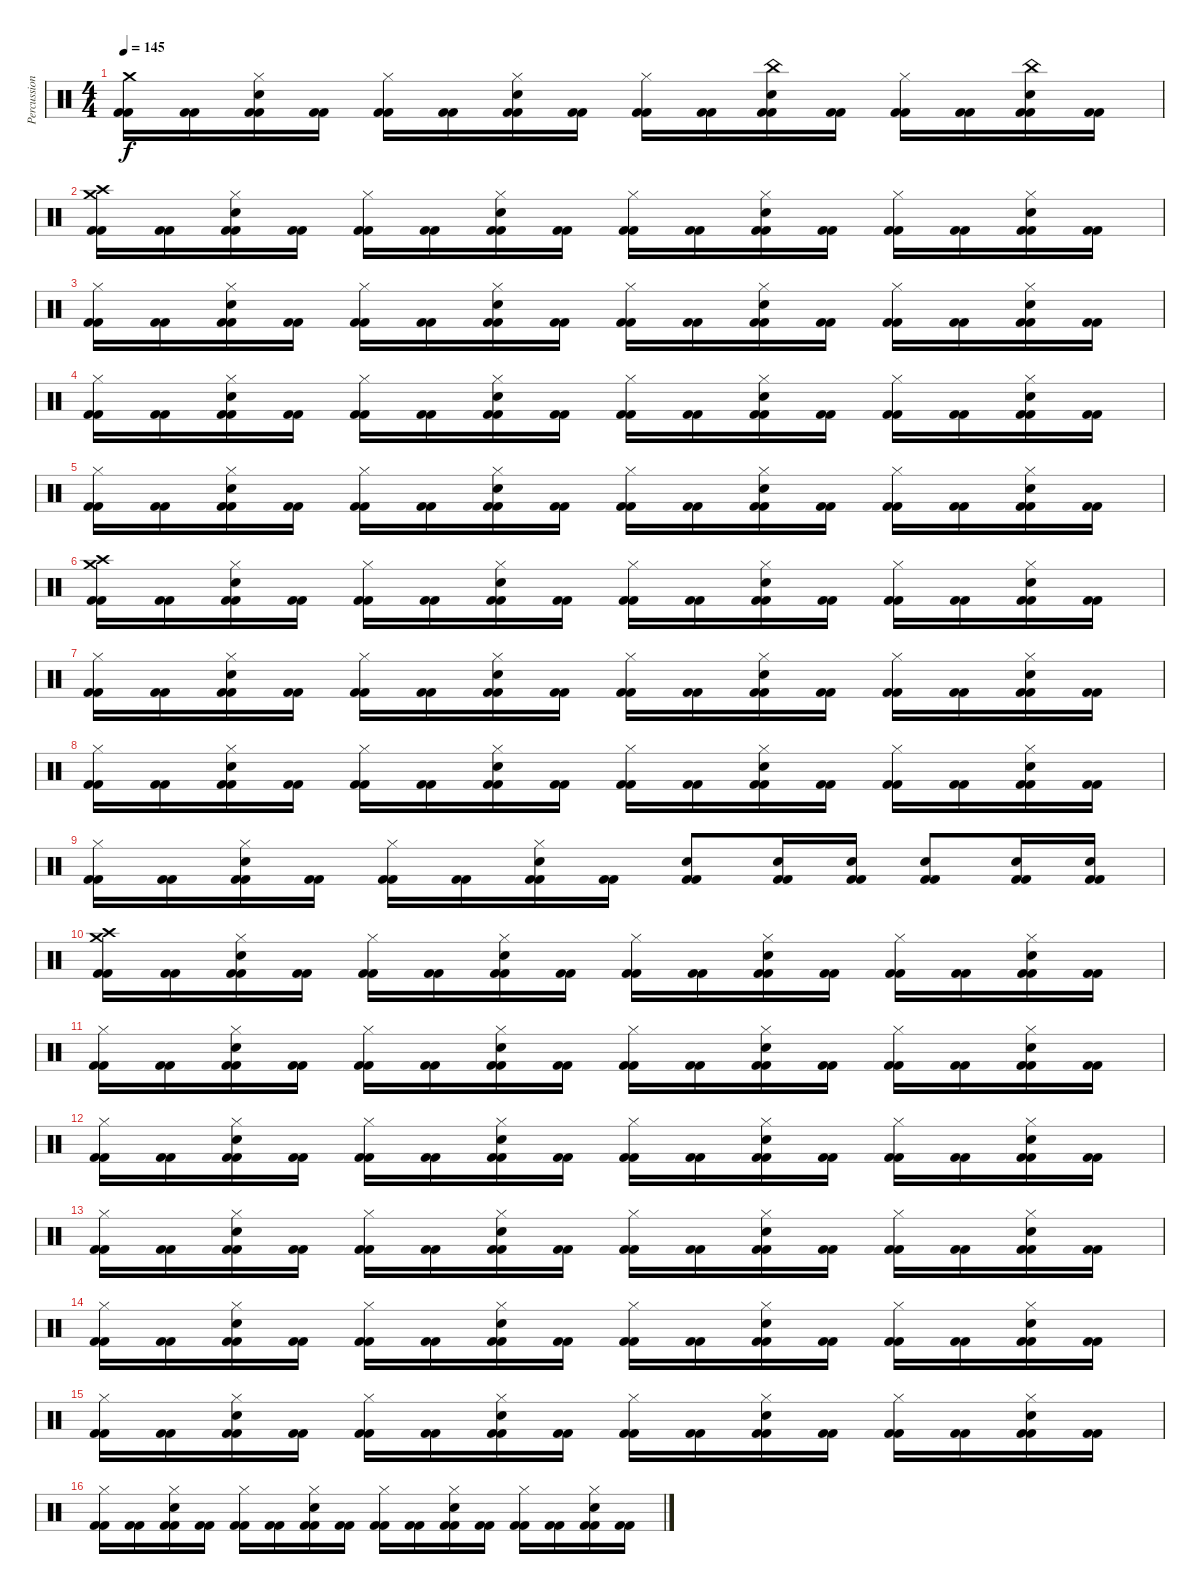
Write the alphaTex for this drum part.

\track ("Percussion" "Percussion") {instrument percussion}
\staff {score}
\articulation defaults
\ts (4 4)
\tempo 145
\clef neutral
\ks c
("Crash medium (hit)" "Kick (hit) 2" "Kick (hit) 2").16{dy f} ("Kick (hit) 2" "Kick (hit) 2").16 ("Hi-Hat (closed)" "Snare (hit) 2" "Kick (hit) 2" "Kick (hit) 2").16 ("Kick (hit) 2" "Kick (hit) 2").16 ("Hi-Hat (closed)" "Kick (hit) 2" "Kick (hit) 2").16 ("Kick (hit) 2" "Kick (hit) 2").16 ("Hi-Hat (closed)" "Snare (hit) 2" "Kick (hit) 2" "Kick (hit) 2").16 ("Kick (hit) 2" "Kick (hit) 2").16 ("Hi-Hat (closed)" "Kick (hit) 2" "Kick (hit) 2").16 ("Kick (hit) 2" "Kick (hit) 2").16 ("China (hit)" "Snare (hit) 2" "Kick (hit) 2" "Kick (hit) 2").16 ("Kick (hit) 2" "Kick (hit) 2").16 ("Hi-Hat (closed)" "Kick (hit) 2" "Kick (hit) 2").16 ("Kick (hit) 2" "Kick (hit) 2").16 ("China (hit)" "Snare (hit) 2" "Kick (hit) 2" "Kick (hit) 2").16 ("Kick (hit) 2" "Kick (hit) 2").16 |
("Crash high (hit)" "Crash medium (hit)" "Kick (hit) 2" "Kick (hit) 2").16 ("Kick (hit) 2" "Kick (hit) 2").16 ("Hi-Hat (closed)" "Snare (hit) 2" "Kick (hit) 2" "Kick (hit) 2").16 ("Kick (hit) 2" "Kick (hit) 2").16 ("Hi-Hat (closed)" "Kick (hit) 2" "Kick (hit) 2").16 ("Kick (hit) 2" "Kick (hit) 2").16 ("Hi-Hat (closed)" "Snare (hit) 2" "Kick (hit) 2" "Kick (hit) 2").16 ("Kick (hit) 2" "Kick (hit) 2").16 ("Hi-Hat (closed)" "Kick (hit) 2" "Kick (hit) 2").16 ("Kick (hit) 2" "Kick (hit) 2").16 ("Hi-Hat (closed)" "Snare (hit) 2" "Kick (hit) 2" "Kick (hit) 2").16 ("Kick (hit) 2" "Kick (hit) 2").16 ("Hi-Hat (closed)" "Kick (hit) 2" "Kick (hit) 2").16 ("Kick (hit) 2" "Kick (hit) 2").16 ("Hi-Hat (closed)" "Snare (hit) 2" "Kick (hit) 2" "Kick (hit) 2").16 ("Kick (hit) 2" "Kick (hit) 2").16 |
("Hi-Hat (closed)" "Kick (hit) 2" "Kick (hit) 2").16 ("Kick (hit) 2" "Kick (hit) 2").16 ("Hi-Hat (closed)" "Snare (hit) 2" "Kick (hit) 2" "Kick (hit) 2").16 ("Kick (hit) 2" "Kick (hit) 2").16 ("Hi-Hat (closed)" "Kick (hit) 2" "Kick (hit) 2").16 ("Kick (hit) 2" "Kick (hit) 2").16 ("Hi-Hat (closed)" "Snare (hit) 2" "Kick (hit) 2" "Kick (hit) 2").16 ("Kick (hit) 2" "Kick (hit) 2").16 ("Hi-Hat (closed)" "Kick (hit) 2" "Kick (hit) 2").16 ("Kick (hit) 2" "Kick (hit) 2").16 ("Hi-Hat (closed)" "Snare (hit) 2" "Kick (hit) 2" "Kick (hit) 2").16 ("Kick (hit) 2" "Kick (hit) 2").16 ("Hi-Hat (closed)" "Kick (hit) 2" "Kick (hit) 2").16 ("Kick (hit) 2" "Kick (hit) 2").16 ("Hi-Hat (closed)" "Snare (hit) 2" "Kick (hit) 2" "Kick (hit) 2").16 ("Kick (hit) 2" "Kick (hit) 2").16 |
("Hi-Hat (closed)" "Kick (hit) 2" "Kick (hit) 2").16 ("Kick (hit) 2" "Kick (hit) 2").16 ("Hi-Hat (closed)" "Snare (hit) 2" "Kick (hit) 2" "Kick (hit) 2").16 ("Kick (hit) 2" "Kick (hit) 2").16 ("Hi-Hat (closed)" "Kick (hit) 2" "Kick (hit) 2").16 ("Kick (hit) 2" "Kick (hit) 2").16 ("Hi-Hat (closed)" "Snare (hit) 2" "Kick (hit) 2" "Kick (hit) 2").16 ("Kick (hit) 2" "Kick (hit) 2").16 ("Hi-Hat (closed)" "Kick (hit) 2" "Kick (hit) 2").16 ("Kick (hit) 2" "Kick (hit) 2").16 ("Hi-Hat (closed)" "Snare (hit) 2" "Kick (hit) 2" "Kick (hit) 2").16 ("Kick (hit) 2" "Kick (hit) 2").16 ("Hi-Hat (closed)" "Kick (hit) 2" "Kick (hit) 2").16 ("Kick (hit) 2" "Kick (hit) 2").16 ("Hi-Hat (closed)" "Snare (hit) 2" "Kick (hit) 2" "Kick (hit) 2").16 ("Kick (hit) 2" "Kick (hit) 2").16 |
("Hi-Hat (closed)" "Kick (hit) 2" "Kick (hit) 2").16 ("Kick (hit) 2" "Kick (hit) 2").16 ("Hi-Hat (closed)" "Snare (hit) 2" "Kick (hit) 2" "Kick (hit) 2").16 ("Kick (hit) 2" "Kick (hit) 2").16 ("Hi-Hat (closed)" "Kick (hit) 2" "Kick (hit) 2").16 ("Kick (hit) 2" "Kick (hit) 2").16 ("Hi-Hat (closed)" "Snare (hit) 2" "Kick (hit) 2" "Kick (hit) 2").16 ("Kick (hit) 2" "Kick (hit) 2").16 ("Hi-Hat (closed)" "Kick (hit) 2" "Kick (hit) 2").16 ("Kick (hit) 2" "Kick (hit) 2").16 ("Hi-Hat (closed)" "Snare (hit) 2" "Kick (hit) 2" "Kick (hit) 2").16 ("Kick (hit) 2" "Kick (hit) 2").16 ("Hi-Hat (closed)" "Kick (hit) 2" "Kick (hit) 2").16 ("Kick (hit) 2" "Kick (hit) 2").16 ("Hi-Hat (closed)" "Snare (hit) 2" "Kick (hit) 2" "Kick (hit) 2").16 ("Kick (hit) 2" "Kick (hit) 2").16 |
("Crash high (hit)" "Crash medium (hit)" "Kick (hit) 2" "Kick (hit) 2").16 ("Kick (hit) 2" "Kick (hit) 2").16 ("Hi-Hat (closed)" "Snare (hit) 2" "Kick (hit) 2" "Kick (hit) 2").16 ("Kick (hit) 2" "Kick (hit) 2").16 ("Hi-Hat (closed)" "Kick (hit) 2" "Kick (hit) 2").16 ("Kick (hit) 2" "Kick (hit) 2").16 ("Hi-Hat (closed)" "Snare (hit) 2" "Kick (hit) 2" "Kick (hit) 2").16 ("Kick (hit) 2" "Kick (hit) 2").16 ("Hi-Hat (closed)" "Kick (hit) 2" "Kick (hit) 2").16 ("Kick (hit) 2" "Kick (hit) 2").16 ("Hi-Hat (closed)" "Snare (hit) 2" "Kick (hit) 2" "Kick (hit) 2").16 ("Kick (hit) 2" "Kick (hit) 2").16 ("Hi-Hat (closed)" "Kick (hit) 2" "Kick (hit) 2").16 ("Kick (hit) 2" "Kick (hit) 2").16 ("Hi-Hat (closed)" "Snare (hit) 2" "Kick (hit) 2" "Kick (hit) 2").16 ("Kick (hit) 2" "Kick (hit) 2").16 |
("Hi-Hat (closed)" "Kick (hit) 2" "Kick (hit) 2").16 ("Kick (hit) 2" "Kick (hit) 2").16 ("Hi-Hat (closed)" "Snare (hit) 2" "Kick (hit) 2" "Kick (hit) 2").16 ("Kick (hit) 2" "Kick (hit) 2").16 ("Hi-Hat (closed)" "Kick (hit) 2" "Kick (hit) 2").16 ("Kick (hit) 2" "Kick (hit) 2").16 ("Hi-Hat (closed)" "Snare (hit) 2" "Kick (hit) 2" "Kick (hit) 2").16 ("Kick (hit) 2" "Kick (hit) 2").16 ("Hi-Hat (closed)" "Kick (hit) 2" "Kick (hit) 2").16 ("Kick (hit) 2" "Kick (hit) 2").16 ("Hi-Hat (closed)" "Snare (hit) 2" "Kick (hit) 2" "Kick (hit) 2").16 ("Kick (hit) 2" "Kick (hit) 2").16 ("Hi-Hat (closed)" "Kick (hit) 2" "Kick (hit) 2").16 ("Kick (hit) 2" "Kick (hit) 2").16 ("Hi-Hat (closed)" "Snare (hit) 2" "Kick (hit) 2" "Kick (hit) 2").16 ("Kick (hit) 2" "Kick (hit) 2").16 |
("Hi-Hat (closed)" "Kick (hit) 2" "Kick (hit) 2").16 ("Kick (hit) 2" "Kick (hit) 2").16 ("Hi-Hat (closed)" "Snare (hit) 2" "Kick (hit) 2" "Kick (hit) 2").16 ("Kick (hit) 2" "Kick (hit) 2").16 ("Hi-Hat (closed)" "Kick (hit) 2" "Kick (hit) 2").16 ("Kick (hit) 2" "Kick (hit) 2").16 ("Hi-Hat (closed)" "Snare (hit) 2" "Kick (hit) 2" "Kick (hit) 2").16 ("Kick (hit) 2" "Kick (hit) 2").16 ("Hi-Hat (closed)" "Kick (hit) 2" "Kick (hit) 2").16 ("Kick (hit) 2" "Kick (hit) 2").16 ("Hi-Hat (closed)" "Snare (hit) 2" "Kick (hit) 2" "Kick (hit) 2").16 ("Kick (hit) 2" "Kick (hit) 2").16 ("Hi-Hat (closed)" "Kick (hit) 2" "Kick (hit) 2").16 ("Kick (hit) 2" "Kick (hit) 2").16 ("Hi-Hat (closed)" "Snare (hit) 2" "Kick (hit) 2" "Kick (hit) 2").16 ("Kick (hit) 2" "Kick (hit) 2").16 |
("Hi-Hat (closed)" "Kick (hit) 2" "Kick (hit) 2").16 ("Kick (hit) 2" "Kick (hit) 2").16 ("Hi-Hat (closed)" "Snare (hit) 2" "Kick (hit) 2" "Kick (hit) 2").16 ("Kick (hit) 2" "Kick (hit) 2").16 ("Hi-Hat (closed)" "Kick (hit) 2" "Kick (hit) 2").16 ("Kick (hit) 2" "Kick (hit) 2").16 ("Hi-Hat (closed)" "Snare (hit) 2" "Kick (hit) 2" "Kick (hit) 2").16 ("Kick (hit) 2" "Kick (hit) 2").16 ("Snare (hit) 2" "Kick (hit) 2" "Kick (hit) 2").8 ("Snare (hit) 2" "Kick (hit) 2" "Kick (hit) 2").16 ("Snare (hit) 2" "Kick (hit) 2" "Kick (hit) 2").16 ("Snare (hit) 2" "Kick (hit) 2" "Kick (hit) 2").8 ("Snare (hit) 2" "Kick (hit) 2" "Kick (hit) 2").16 ("Snare (hit) 2" "Kick (hit) 2" "Kick (hit) 2").16 |
("Crash high (hit)" "Crash medium (hit)" "Kick (hit) 2" "Kick (hit) 2").16 ("Kick (hit) 2" "Kick (hit) 2").16 ("Hi-Hat (closed)" "Snare (hit) 2" "Kick (hit) 2" "Kick (hit) 2").16 ("Kick (hit) 2" "Kick (hit) 2").16 ("Hi-Hat (closed)" "Kick (hit) 2" "Kick (hit) 2").16 ("Kick (hit) 2" "Kick (hit) 2").16 ("Hi-Hat (closed)" "Snare (hit) 2" "Kick (hit) 2" "Kick (hit) 2").16 ("Kick (hit) 2" "Kick (hit) 2").16 ("Hi-Hat (closed)" "Kick (hit) 2" "Kick (hit) 2").16 ("Kick (hit) 2" "Kick (hit) 2").16 ("Hi-Hat (closed)" "Snare (hit) 2" "Kick (hit) 2" "Kick (hit) 2").16 ("Kick (hit) 2" "Kick (hit) 2").16 ("Hi-Hat (closed)" "Kick (hit) 2" "Kick (hit) 2").16 ("Kick (hit) 2" "Kick (hit) 2").16 ("Hi-Hat (closed)" "Snare (hit) 2" "Kick (hit) 2" "Kick (hit) 2").16 ("Kick (hit) 2" "Kick (hit) 2").16 |
("Hi-Hat (closed)" "Kick (hit) 2" "Kick (hit) 2").16 ("Kick (hit) 2" "Kick (hit) 2").16 ("Hi-Hat (closed)" "Snare (hit) 2" "Kick (hit) 2" "Kick (hit) 2").16 ("Kick (hit) 2" "Kick (hit) 2").16 ("Hi-Hat (closed)" "Kick (hit) 2" "Kick (hit) 2").16 ("Kick (hit) 2" "Kick (hit) 2").16 ("Hi-Hat (closed)" "Snare (hit) 2" "Kick (hit) 2" "Kick (hit) 2").16 ("Kick (hit) 2" "Kick (hit) 2").16 ("Hi-Hat (closed)" "Kick (hit) 2" "Kick (hit) 2").16 ("Kick (hit) 2" "Kick (hit) 2").16 ("Hi-Hat (closed)" "Snare (hit) 2" "Kick (hit) 2" "Kick (hit) 2").16 ("Kick (hit) 2" "Kick (hit) 2").16 ("Hi-Hat (closed)" "Kick (hit) 2" "Kick (hit) 2").16 ("Kick (hit) 2" "Kick (hit) 2").16 ("Hi-Hat (closed)" "Snare (hit) 2" "Kick (hit) 2" "Kick (hit) 2").16 ("Kick (hit) 2" "Kick (hit) 2").16 |
("Hi-Hat (closed)" "Kick (hit) 2" "Kick (hit) 2").16 ("Kick (hit) 2" "Kick (hit) 2").16 ("Hi-Hat (closed)" "Snare (hit) 2" "Kick (hit) 2" "Kick (hit) 2").16 ("Kick (hit) 2" "Kick (hit) 2").16 ("Hi-Hat (closed)" "Kick (hit) 2" "Kick (hit) 2").16 ("Kick (hit) 2" "Kick (hit) 2").16 ("Hi-Hat (closed)" "Snare (hit) 2" "Kick (hit) 2" "Kick (hit) 2").16 ("Kick (hit) 2" "Kick (hit) 2").16 ("Hi-Hat (closed)" "Kick (hit) 2" "Kick (hit) 2").16 ("Kick (hit) 2" "Kick (hit) 2").16 ("Hi-Hat (closed)" "Snare (hit) 2" "Kick (hit) 2" "Kick (hit) 2").16 ("Kick (hit) 2" "Kick (hit) 2").16 ("Hi-Hat (closed)" "Kick (hit) 2" "Kick (hit) 2").16 ("Kick (hit) 2" "Kick (hit) 2").16 ("Hi-Hat (closed)" "Snare (hit) 2" "Kick (hit) 2" "Kick (hit) 2").16 ("Kick (hit) 2" "Kick (hit) 2").16 |
("Hi-Hat (closed)" "Kick (hit) 2" "Kick (hit) 2").16 ("Kick (hit) 2" "Kick (hit) 2").16 ("Hi-Hat (closed)" "Snare (hit) 2" "Kick (hit) 2" "Kick (hit) 2").16 ("Kick (hit) 2" "Kick (hit) 2").16 ("Hi-Hat (closed)" "Kick (hit) 2" "Kick (hit) 2").16 ("Kick (hit) 2" "Kick (hit) 2").16 ("Hi-Hat (closed)" "Snare (hit) 2" "Kick (hit) 2" "Kick (hit) 2").16 ("Kick (hit) 2" "Kick (hit) 2").16 ("Hi-Hat (closed)" "Kick (hit) 2" "Kick (hit) 2").16 ("Kick (hit) 2" "Kick (hit) 2").16 ("Hi-Hat (closed)" "Snare (hit) 2" "Kick (hit) 2" "Kick (hit) 2").16 ("Kick (hit) 2" "Kick (hit) 2").16 ("Hi-Hat (closed)" "Kick (hit) 2" "Kick (hit) 2").16 ("Kick (hit) 2" "Kick (hit) 2").16 ("Hi-Hat (closed)" "Snare (hit) 2" "Kick (hit) 2" "Kick (hit) 2").16 ("Kick (hit) 2" "Kick (hit) 2").16 |
("Hi-Hat (closed)" "Kick (hit) 2" "Kick (hit) 2").16 ("Kick (hit) 2" "Kick (hit) 2").16 ("Hi-Hat (closed)" "Snare (hit) 2" "Kick (hit) 2" "Kick (hit) 2").16 ("Kick (hit) 2" "Kick (hit) 2").16 ("Hi-Hat (closed)" "Kick (hit) 2" "Kick (hit) 2").16 ("Kick (hit) 2" "Kick (hit) 2").16 ("Hi-Hat (closed)" "Snare (hit) 2" "Kick (hit) 2" "Kick (hit) 2").16 ("Kick (hit) 2" "Kick (hit) 2").16 ("Hi-Hat (closed)" "Kick (hit) 2" "Kick (hit) 2").16 ("Kick (hit) 2" "Kick (hit) 2").16 ("Hi-Hat (closed)" "Snare (hit) 2" "Kick (hit) 2" "Kick (hit) 2").16 ("Kick (hit) 2" "Kick (hit) 2").16 ("Hi-Hat (closed)" "Kick (hit) 2" "Kick (hit) 2").16 ("Kick (hit) 2" "Kick (hit) 2").16 ("Hi-Hat (closed)" "Snare (hit) 2" "Kick (hit) 2" "Kick (hit) 2").16 ("Kick (hit) 2" "Kick (hit) 2").16 |
("Hi-Hat (closed)" "Kick (hit) 2" "Kick (hit) 2").16 ("Kick (hit) 2" "Kick (hit) 2").16 ("Hi-Hat (closed)" "Snare (hit) 2" "Kick (hit) 2" "Kick (hit) 2").16 ("Kick (hit) 2" "Kick (hit) 2").16 ("Hi-Hat (closed)" "Kick (hit) 2" "Kick (hit) 2").16 ("Kick (hit) 2" "Kick (hit) 2").16 ("Hi-Hat (closed)" "Snare (hit) 2" "Kick (hit) 2" "Kick (hit) 2").16 ("Kick (hit) 2" "Kick (hit) 2").16 ("Hi-Hat (closed)" "Kick (hit) 2" "Kick (hit) 2").16 ("Kick (hit) 2" "Kick (hit) 2").16 ("Hi-Hat (closed)" "Snare (hit) 2" "Kick (hit) 2" "Kick (hit) 2").16 ("Kick (hit) 2" "Kick (hit) 2").16 ("Hi-Hat (closed)" "Kick (hit) 2" "Kick (hit) 2").16 ("Kick (hit) 2" "Kick (hit) 2").16 ("Hi-Hat (closed)" "Snare (hit) 2" "Kick (hit) 2" "Kick (hit) 2").16 ("Kick (hit) 2" "Kick (hit) 2").16 |
("Hi-Hat (closed)" "Kick (hit) 2" "Kick (hit) 2").16 ("Kick (hit) 2" "Kick (hit) 2").16 ("Hi-Hat (closed)" "Snare (hit) 2" "Kick (hit) 2" "Kick (hit) 2").16 ("Kick (hit) 2" "Kick (hit) 2").16 ("Hi-Hat (closed)" "Kick (hit) 2" "Kick (hit) 2").16 ("Kick (hit) 2" "Kick (hit) 2").16 ("Hi-Hat (closed)" "Snare (hit) 2" "Kick (hit) 2" "Kick (hit) 2").16 ("Kick (hit) 2" "Kick (hit) 2").16 ("Hi-Hat (closed)" "Kick (hit) 2" "Kick (hit) 2").16 ("Kick (hit) 2" "Kick (hit) 2").16 ("Hi-Hat (closed)" "Snare (hit) 2" "Kick (hit) 2" "Kick (hit) 2").16 ("Kick (hit) 2" "Kick (hit) 2").16 ("Hi-Hat (closed)" "Kick (hit) 2" "Kick (hit) 2").16 ("Kick (hit) 2" "Kick (hit) 2").16 ("Hi-Hat (closed)" "Snare (hit) 2" "Kick (hit) 2" "Kick (hit) 2").16 ("Kick (hit) 2" "Kick (hit) 2").16
